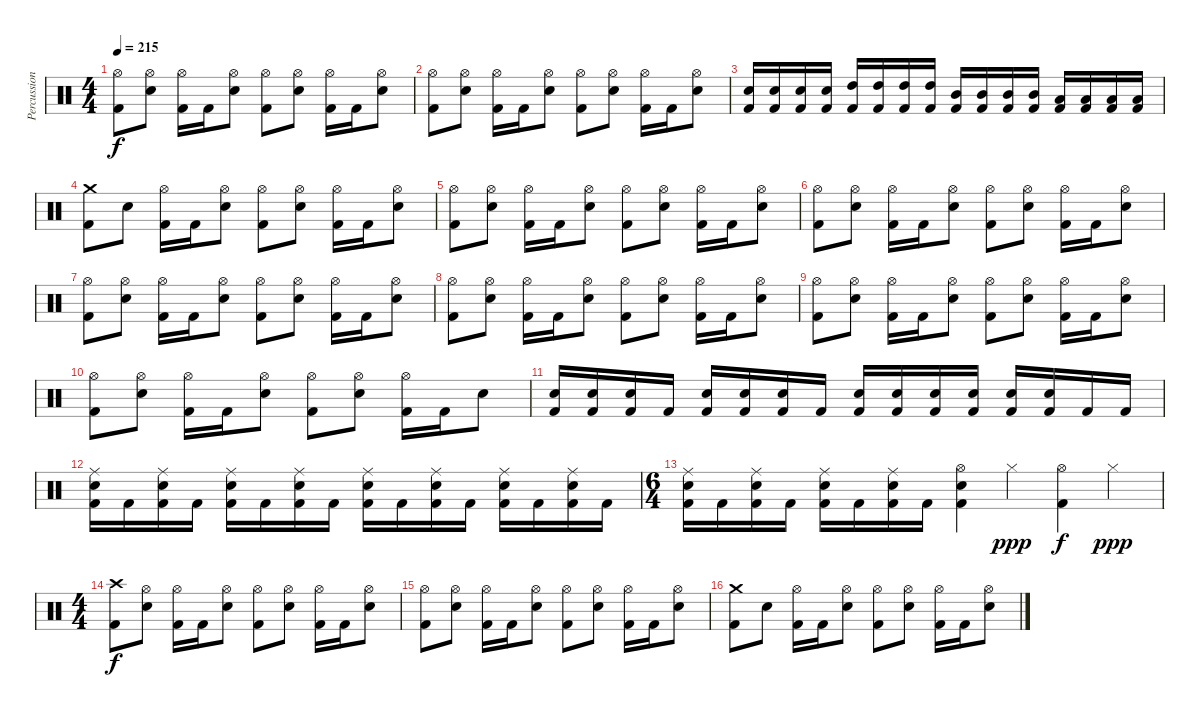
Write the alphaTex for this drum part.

\track ("Percussion" "Percussion") {instrument percussion}
\staff {score}
\articulation defaults
\ts (4 4)
\tempo 215
\clef neutral
\ks c
("Hi-Hat (open)" "Kick (hit) 2").8{dy f} ("Hi-Hat (open)" "Snare (hit) 2").8 ("Hi-Hat (open)" "Kick (hit) 2").16 "Kick (hit) 2".16 ("Hi-Hat (open)" "Snare (hit) 2").8 ("Hi-Hat (open)" "Kick (hit) 2").8 ("Hi-Hat (open)" "Snare (hit) 2").8 ("Hi-Hat (open)" "Kick (hit) 2").16 "Kick (hit) 2".16 ("Hi-Hat (open)" "Snare (hit) 2").8 |
("Hi-Hat (open)" "Kick (hit) 2").8 ("Hi-Hat (open)" "Snare (hit) 2").8 ("Hi-Hat (open)" "Kick (hit) 2").16 "Kick (hit) 2".16 ("Hi-Hat (open)" "Snare (hit) 2").8 ("Hi-Hat (open)" "Kick (hit) 2").8 ("Hi-Hat (open)" "Snare (hit) 2").8 ("Hi-Hat (open)" "Kick (hit) 2").16 "Kick (hit) 2".16 ("Hi-Hat (open)" "Snare (hit) 2").8 |
("Snare (hit) 2" "Kick (hit) 2").16 ("Snare (hit) 2" "Kick (hit) 2").16 ("Snare (hit) 2" "Kick (hit) 2").16 ("Snare (hit) 2" "Kick (hit) 2").16 ("High Tom (hit)" "Kick (hit) 2").16 ("High Tom (hit)" "Kick (hit) 2").16 ("High Tom (hit)" "Kick (hit) 2").16 ("High Tom (hit)" "Kick (hit) 2").16 ("Mid Tom (hit)" "Kick (hit) 2").16 ("Mid Tom (hit)" "Kick (hit) 2").16 ("Mid Tom (hit)" "Kick (hit) 2").16 ("Mid Tom (hit)" "Kick (hit) 2").16 ("Low Tom (hit)" "Kick (hit) 2").16 ("Low Tom (hit)" "Kick (hit) 2").16 ("Low Tom (hit)" "Kick (hit) 2").16 ("Low Tom (hit)" "Kick (hit) 2").16 |
("Crash medium (hit)" "Kick (hit) 2").8 "Snare (hit) 2".8 ("Hi-Hat (open)" "Kick (hit) 2").16 "Kick (hit) 2".16 ("Hi-Hat (open)" "Snare (hit) 2").8 ("Hi-Hat (open)" "Kick (hit) 2").8 ("Hi-Hat (open)" "Snare (hit) 2").8 ("Hi-Hat (open)" "Kick (hit) 2").16 "Kick (hit) 2".16 ("Hi-Hat (open)" "Snare (hit) 2").8 |
("Hi-Hat (open)" "Kick (hit) 2").8 ("Hi-Hat (open)" "Snare (hit) 2").8 ("Hi-Hat (open)" "Kick (hit) 2").16 "Kick (hit) 2".16 ("Hi-Hat (open)" "Snare (hit) 2").8 ("Hi-Hat (open)" "Kick (hit) 2").8 ("Hi-Hat (open)" "Snare (hit) 2").8 ("Hi-Hat (open)" "Kick (hit) 2").16 "Kick (hit) 2".16 ("Hi-Hat (open)" "Snare (hit) 2").8 |
("Hi-Hat (open)" "Kick (hit) 2").8 ("Hi-Hat (open)" "Snare (hit) 2").8 ("Hi-Hat (open)" "Kick (hit) 2").16 "Kick (hit) 2".16 ("Hi-Hat (open)" "Snare (hit) 2").8 ("Hi-Hat (open)" "Kick (hit) 2").8 ("Hi-Hat (open)" "Snare (hit) 2").8 ("Hi-Hat (open)" "Kick (hit) 2").16 "Kick (hit) 2".16 ("Hi-Hat (open)" "Snare (hit) 2").8 |
("Hi-Hat (open)" "Kick (hit) 2").8 ("Hi-Hat (open)" "Snare (hit) 2").8 ("Hi-Hat (open)" "Kick (hit) 2").16 "Kick (hit) 2".16 ("Hi-Hat (open)" "Snare (hit) 2").8 ("Hi-Hat (open)" "Kick (hit) 2").8 ("Hi-Hat (open)" "Snare (hit) 2").8 ("Hi-Hat (open)" "Kick (hit) 2").16 "Kick (hit) 2".16 ("Hi-Hat (open)" "Snare (hit) 2").8 |
("Hi-Hat (open)" "Kick (hit) 2").8 ("Hi-Hat (open)" "Snare (hit) 2").8 ("Hi-Hat (open)" "Kick (hit) 2").16 "Kick (hit) 2".16 ("Hi-Hat (open)" "Snare (hit) 2").8 ("Hi-Hat (open)" "Kick (hit) 2").8 ("Hi-Hat (open)" "Snare (hit) 2").8 ("Hi-Hat (open)" "Kick (hit) 2").16 "Kick (hit) 2".16 ("Hi-Hat (open)" "Snare (hit) 2").8 |
("Hi-Hat (open)" "Kick (hit) 2").8 ("Hi-Hat (open)" "Snare (hit) 2").8 ("Hi-Hat (open)" "Kick (hit) 2").16 "Kick (hit) 2".16 ("Hi-Hat (open)" "Snare (hit) 2").8 ("Hi-Hat (open)" "Kick (hit) 2").8 ("Hi-Hat (open)" "Snare (hit) 2").8 ("Hi-Hat (open)" "Kick (hit) 2").16 "Kick (hit) 2".16 ("Hi-Hat (open)" "Snare (hit) 2").8 |
("Hi-Hat (open)" "Kick (hit) 2").8 ("Hi-Hat (open)" "Snare (hit) 2").8 ("Hi-Hat (open)" "Kick (hit) 2").16 "Kick (hit) 2".16 ("Hi-Hat (open)" "Snare (hit) 2").8 ("Hi-Hat (open)" "Kick (hit) 2").8 ("Hi-Hat (open)" "Snare (hit) 2").8 ("Hi-Hat (open)" "Kick (hit) 2").16 "Kick (hit) 2".16 "Snare (hit) 2".8 |
("Snare (hit) 2" "Kick (hit) 2").16 ("Snare (hit) 2" "Kick (hit) 2").16 ("Snare (hit) 2" "Kick (hit) 2").16 "Kick (hit) 2".16 ("Snare (hit) 2" "Kick (hit) 2").16 ("Snare (hit) 2" "Kick (hit) 2").16 ("Snare (hit) 2" "Kick (hit) 2").16 "Kick (hit) 2".16 ("Snare (hit) 2" "Kick (hit) 2").16 ("Snare (hit) 2" "Kick (hit) 2").16 ("Snare (hit) 2" "Kick (hit) 2").16 ("Snare (hit) 2" "Kick (hit) 2").16 ("Snare (hit) 2" "Kick (hit) 2").16 ("Snare (hit) 2" "Kick (hit) 2").16 "Kick (hit) 2".16 "Kick (hit) 2".16 |
("Ride (middle)" "Snare (hit) 2" "Kick (hit) 2").16 "Kick (hit) 2".16 ("Ride (middle)" "Snare (hit) 2" "Kick (hit) 2").16 "Kick (hit) 2".16 ("Ride (middle)" "Snare (hit) 2" "Kick (hit) 2").16 "Kick (hit) 2".16 ("Ride (middle)" "Snare (hit) 2" "Kick (hit) 2").16 "Kick (hit) 2".16 ("Ride (middle)" "Snare (hit) 2" "Kick (hit) 2").16 "Kick (hit) 2".16 ("Ride (middle)" "Snare (hit) 2" "Kick (hit) 2").16 "Kick (hit) 2".16 ("Ride (middle)" "Snare (hit) 2" "Kick (hit) 2").16 "Kick (hit) 2".16 ("Ride (middle)" "Snare (hit) 2" "Kick (hit) 2").16 "Kick (hit) 2".16 |
\ts (6 4)
("Ride (middle)" "Snare (hit) 2" "Kick (hit) 2").16 "Kick (hit) 2".16 ("Ride (middle)" "Snare (hit) 2" "Kick (hit) 2").16 "Kick (hit) 2".16 ("Ride (middle)" "Snare (hit) 2" "Kick (hit) 2").16 "Kick (hit) 2".16 ("Ride (middle)" "Snare (hit) 2" "Kick (hit) 2").16 "Kick (hit) 2".16 ("Hi-Hat (open)" "Snare (hit) 2" "Kick (hit) 2").4 "Hi-Hat (closed)".4{dy ppp} ("Hi-Hat (open)" "Kick (hit) 2").4{dy f} "Hi-Hat (closed)".4{dy ppp} |
\ts (4 4)
\section ("" "")
("Crash high (hit)" "Kick (hit) 2").8{dy f} ("Hi-Hat (open)" "Snare (hit) 2").8 ("Hi-Hat (open)" "Kick (hit) 2").16 "Kick (hit) 2".16 ("Hi-Hat (open)" "Snare (hit) 2").8 ("Hi-Hat (open)" "Kick (hit) 2").8 ("Hi-Hat (open)" "Snare (hit) 2").8 ("Hi-Hat (open)" "Kick (hit) 2").16 "Kick (hit) 2".16 ("Hi-Hat (open)" "Snare (hit) 2").8 |
("Hi-Hat (open)" "Kick (hit) 2").8 ("Hi-Hat (open)" "Snare (hit) 2").8 ("Hi-Hat (open)" "Kick (hit) 2").16 "Kick (hit) 2".16 ("Hi-Hat (open)" "Snare (hit) 2").8 ("Hi-Hat (open)" "Kick (hit) 2").8 ("Hi-Hat (open)" "Snare (hit) 2").8 ("Hi-Hat (open)" "Kick (hit) 2").16 "Kick (hit) 2".16 ("Hi-Hat (open)" "Snare (hit) 2").8 |
("Crash medium (hit)" "Kick (hit) 2").8 "Snare (hit) 2".8 ("Hi-Hat (open)" "Kick (hit) 2").16 "Kick (hit) 2".16 ("Hi-Hat (open)" "Snare (hit) 2").8 ("Hi-Hat (open)" "Kick (hit) 2").8 ("Hi-Hat (open)" "Snare (hit) 2").8 ("Hi-Hat (open)" "Kick (hit) 2").16 "Kick (hit) 2".16 ("Hi-Hat (open)" "Snare (hit) 2").8
